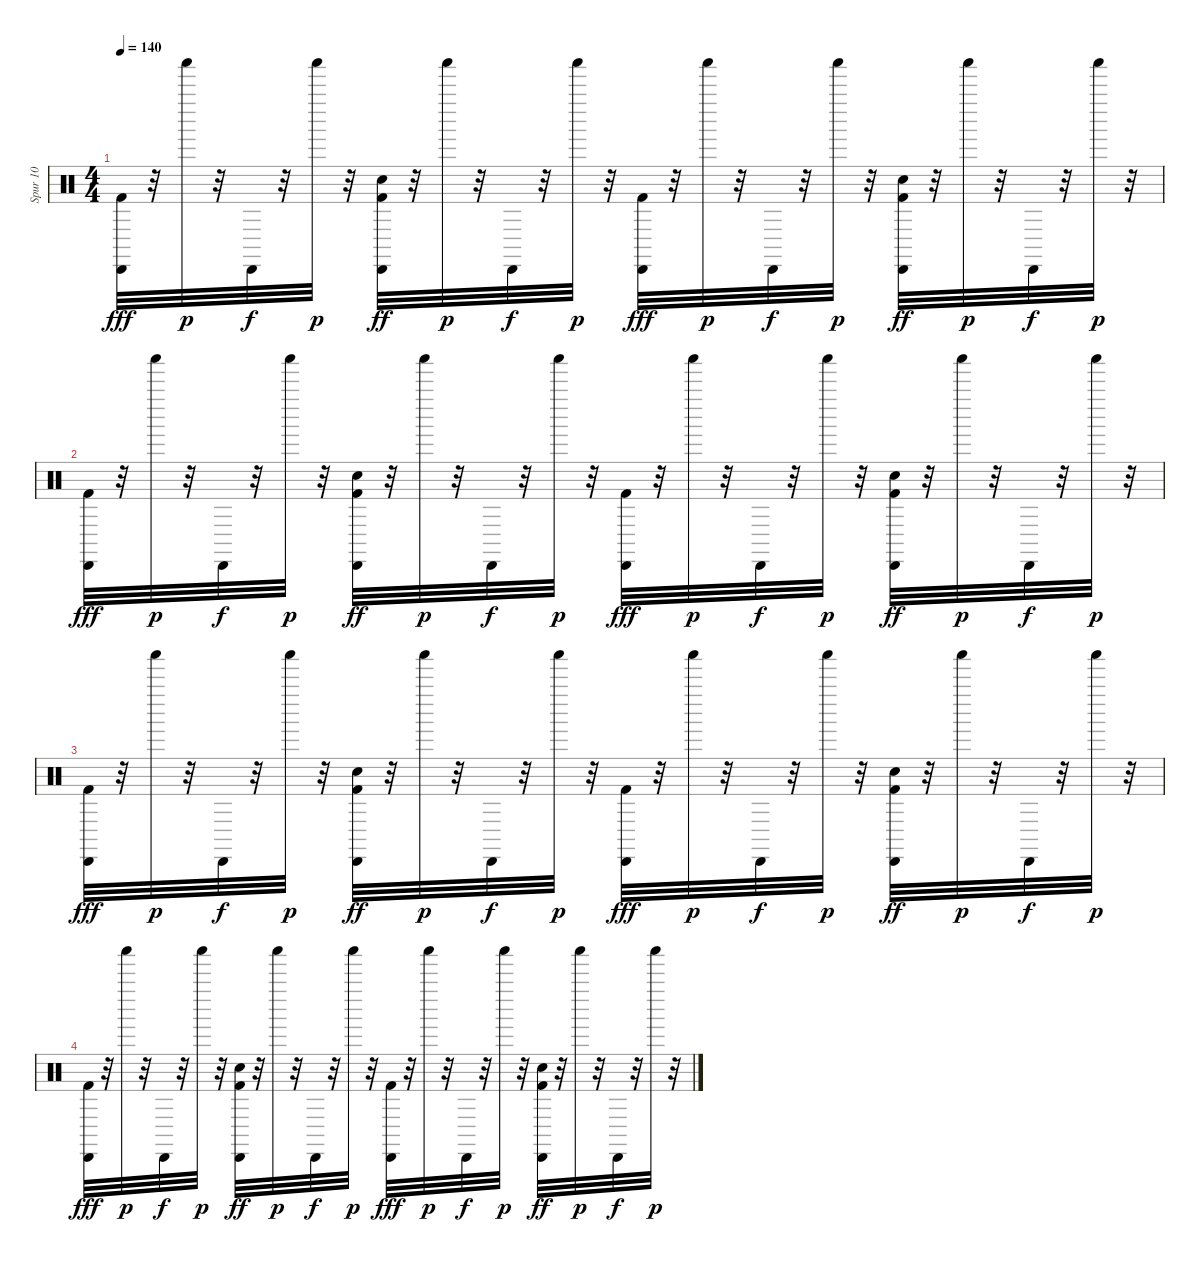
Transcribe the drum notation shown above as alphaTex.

\track ("Spur 10" "Spur 10") {instrument percussion}
\staff {score}
\articulation defaults
\ts (4 4)
\tempo 140
\clef neutral
\ks c
("Cabasa (hit)" "Kick (hit) 2").32{dy fff} r.32 "Shaker (hit)".32{dy p} r.32 "Cabasa (hit)".32{dy f} r.32 "Shaker (hit)".32{dy p} r.32 ("Snare (hit) 2" "Cabasa (hit)" "Kick (hit) 2").32{dy ff} r.32 "Shaker (hit)".32{dy p} r.32 "Cabasa (hit)".32{dy f} r.32 "Shaker (hit)".32{dy p} r.32 ("Cabasa (hit)" "Kick (hit) 2").32{dy fff} r.32 "Shaker (hit)".32{dy p} r.32 "Cabasa (hit)".32{dy f} r.32 "Shaker (hit)".32{dy p} r.32 ("Snare (hit) 2" "Cabasa (hit)" "Kick (hit) 2").32{dy ff} r.32 "Shaker (hit)".32{dy p} r.32 "Cabasa (hit)".32{dy f} r.32 "Shaker (hit)".32{dy p} r.32 |
("Cabasa (hit)" "Kick (hit) 2").32{dy fff} r.32 "Shaker (hit)".32{dy p} r.32 "Cabasa (hit)".32{dy f} r.32 "Shaker (hit)".32{dy p} r.32 ("Snare (hit) 2" "Cabasa (hit)" "Kick (hit) 2").32{dy ff} r.32 "Shaker (hit)".32{dy p} r.32 "Cabasa (hit)".32{dy f} r.32 "Shaker (hit)".32{dy p} r.32 ("Cabasa (hit)" "Kick (hit) 2").32{dy fff} r.32 "Shaker (hit)".32{dy p} r.32 "Cabasa (hit)".32{dy f} r.32 "Shaker (hit)".32{dy p} r.32 ("Snare (hit) 2" "Cabasa (hit)" "Kick (hit) 2").32{dy ff} r.32 "Shaker (hit)".32{dy p} r.32 "Cabasa (hit)".32{dy f} r.32 "Shaker (hit)".32{dy p} r.32 |
("Cabasa (hit)" "Kick (hit) 2").32{dy fff} r.32 "Shaker (hit)".32{dy p} r.32 "Cabasa (hit)".32{dy f} r.32 "Shaker (hit)".32{dy p} r.32 ("Snare (hit) 2" "Cabasa (hit)" "Kick (hit) 2").32{dy ff} r.32 "Shaker (hit)".32{dy p} r.32 "Cabasa (hit)".32{dy f} r.32 "Shaker (hit)".32{dy p} r.32 ("Cabasa (hit)" "Kick (hit) 2").32{dy fff} r.32 "Shaker (hit)".32{dy p} r.32 "Cabasa (hit)".32{dy f} r.32 "Shaker (hit)".32{dy p} r.32 ("Snare (hit) 2" "Cabasa (hit)" "Kick (hit) 2").32{dy ff} r.32 "Shaker (hit)".32{dy p} r.32 "Cabasa (hit)".32{dy f} r.32 "Shaker (hit)".32{dy p} r.32 |
("Cabasa (hit)" "Kick (hit) 2").32{dy fff} r.32 "Shaker (hit)".32{dy p} r.32 "Cabasa (hit)".32{dy f} r.32 "Shaker (hit)".32{dy p} r.32 ("Snare (hit) 2" "Cabasa (hit)" "Kick (hit) 2").32{dy ff} r.32 "Shaker (hit)".32{dy p} r.32 "Cabasa (hit)".32{dy f} r.32 "Shaker (hit)".32{dy p} r.32 ("Cabasa (hit)" "Kick (hit) 2").32{dy fff} r.32 "Shaker (hit)".32{dy p} r.32 "Cabasa (hit)".32{dy f} r.32 "Shaker (hit)".32{dy p} r.32 ("Snare (hit) 2" "Cabasa (hit)" "Kick (hit) 2").32{dy ff} r.32 "Shaker (hit)".32{dy p} r.32 "Cabasa (hit)".32{dy f} r.32 "Shaker (hit)".32{dy p} r.32
